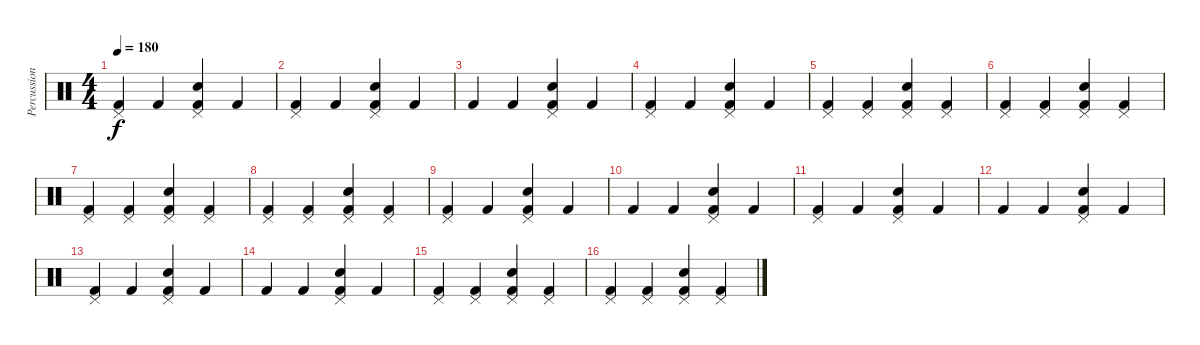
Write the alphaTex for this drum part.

\track ("Percussion" "Percussion") {instrument percussion}
\staff {score}
\articulation defaults
\ts (4 4)
\tempo 180
\clef neutral
\ks c
("Kick (hit) 2" "Pedal Hi-Hat (hit)").4{dy f} "Kick (hit) 2".4 ("Kick (hit) 2" "Snare (hit) 2" "Pedal Hi-Hat (hit)").4 "Kick (hit) 2".4 |
("Kick (hit) 2" "Pedal Hi-Hat (hit)").4 "Kick (hit) 2".4 ("Kick (hit) 2" "Snare (hit) 2" "Pedal Hi-Hat (hit)").4 "Kick (hit) 2".4 |
"Kick (hit) 2".4 "Kick (hit) 2".4 ("Kick (hit) 2" "Snare (hit) 2" "Pedal Hi-Hat (hit)").4 "Kick (hit) 2".4 |
("Kick (hit) 2" "Pedal Hi-Hat (hit)").4 "Kick (hit) 2".4 ("Kick (hit) 2" "Snare (hit) 2" "Pedal Hi-Hat (hit)").4 "Kick (hit) 2".4 |
("Kick (hit) 2" "Pedal Hi-Hat (hit)").4 ("Kick (hit) 2" "Pedal Hi-Hat (hit)").4 ("Kick (hit) 2" "Snare (hit) 2" "Pedal Hi-Hat (hit)").4 ("Kick (hit) 2" "Pedal Hi-Hat (hit)").4 |
("Kick (hit) 2" "Pedal Hi-Hat (hit)").4 ("Kick (hit) 2" "Pedal Hi-Hat (hit)").4 ("Kick (hit) 2" "Snare (hit) 2" "Pedal Hi-Hat (hit)").4 ("Kick (hit) 2" "Pedal Hi-Hat (hit)").4 |
("Kick (hit) 2" "Pedal Hi-Hat (hit)").4 ("Kick (hit) 2" "Pedal Hi-Hat (hit)").4 ("Kick (hit) 2" "Snare (hit) 2" "Pedal Hi-Hat (hit)").4 ("Kick (hit) 2" "Pedal Hi-Hat (hit)").4 |
("Kick (hit) 2" "Pedal Hi-Hat (hit)").4 ("Kick (hit) 2" "Pedal Hi-Hat (hit)").4 ("Kick (hit) 2" "Snare (hit) 2" "Pedal Hi-Hat (hit)").4 ("Kick (hit) 2" "Pedal Hi-Hat (hit)").4 |
("Kick (hit) 2" "Pedal Hi-Hat (hit)").4 "Kick (hit) 2".4 ("Kick (hit) 2" "Snare (hit) 2" "Pedal Hi-Hat (hit)").4 "Kick (hit) 2".4 |
"Kick (hit) 2".4 "Kick (hit) 2".4 ("Kick (hit) 2" "Snare (hit) 2" "Pedal Hi-Hat (hit)").4 "Kick (hit) 2".4 |
("Kick (hit) 2" "Pedal Hi-Hat (hit)").4 "Kick (hit) 2".4 ("Kick (hit) 2" "Snare (hit) 2" "Pedal Hi-Hat (hit)").4 "Kick (hit) 2".4 |
"Kick (hit) 2".4 "Kick (hit) 2".4 ("Kick (hit) 2" "Snare (hit) 2" "Pedal Hi-Hat (hit)").4 "Kick (hit) 2".4 |
("Kick (hit) 2" "Pedal Hi-Hat (hit)").4 "Kick (hit) 2".4 ("Kick (hit) 2" "Snare (hit) 2" "Pedal Hi-Hat (hit)").4 "Kick (hit) 2".4 |
"Kick (hit) 2".4 "Kick (hit) 2".4 ("Kick (hit) 2" "Snare (hit) 2" "Pedal Hi-Hat (hit)").4 "Kick (hit) 2".4 |
("Kick (hit) 2" "Pedal Hi-Hat (hit)").4 ("Kick (hit) 2" "Pedal Hi-Hat (hit)").4 ("Kick (hit) 2" "Snare (hit) 2" "Pedal Hi-Hat (hit)").4 ("Kick (hit) 2" "Pedal Hi-Hat (hit)").4 |
("Kick (hit) 2" "Pedal Hi-Hat (hit)").4 ("Kick (hit) 2" "Pedal Hi-Hat (hit)").4 ("Kick (hit) 2" "Snare (hit) 2" "Pedal Hi-Hat (hit)").4 ("Kick (hit) 2" "Pedal Hi-Hat (hit)").4
